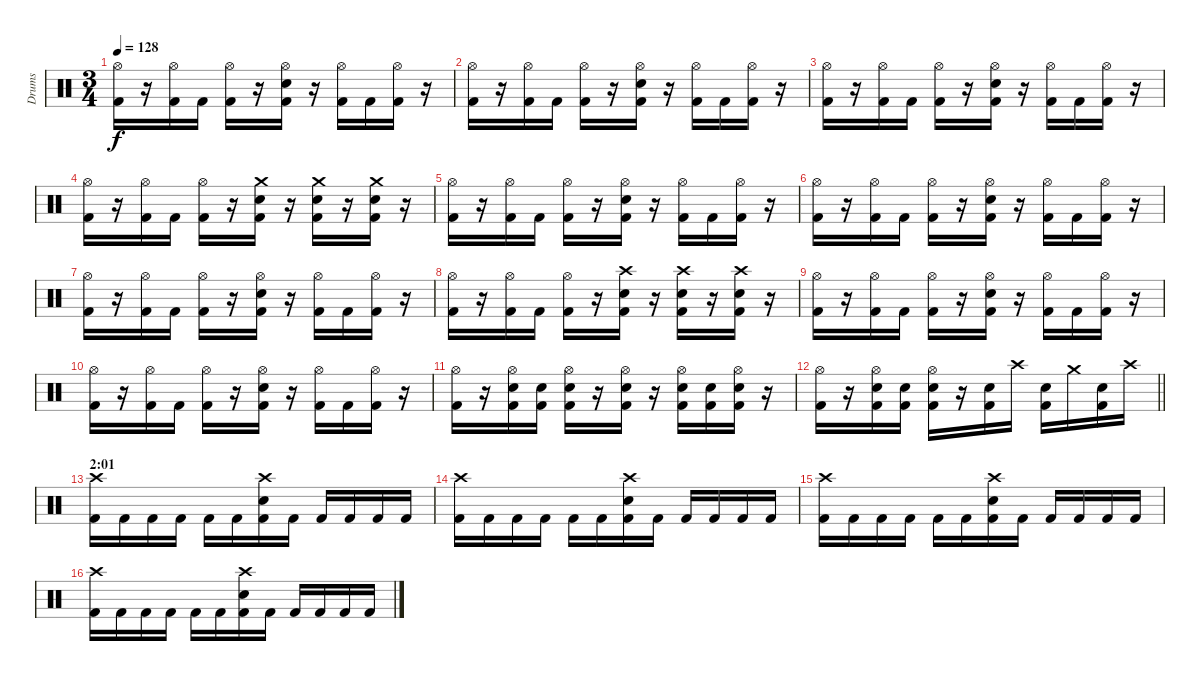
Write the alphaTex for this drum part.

\track ("Drums" "Drums") {instrument percussion}
\staff {score}
\articulation defaults
\ts (3 4)
\tempo 128
\clef neutral
\ks c
("Hi-Hat (open)" "Kick (hit) 2").16{dy f} r.16 ("Hi-Hat (open)" "Kick (hit) 2").16 "Kick (hit) 2".16 ("Hi-Hat (open)" "Kick (hit) 2").16 r.16 ("Hi-Hat (open)" "Snare (hit) 2" "Kick (hit) 2").16 r.16 ("Hi-Hat (open)" "Kick (hit) 2").16 "Kick (hit) 2".16 ("Hi-Hat (open)" "Kick (hit) 2").16 r.16 |
("Hi-Hat (open)" "Kick (hit) 2").16 r.16 ("Hi-Hat (open)" "Kick (hit) 2").16 "Kick (hit) 2".16 ("Hi-Hat (open)" "Kick (hit) 2").16 r.16 ("Hi-Hat (open)" "Snare (hit) 2" "Kick (hit) 2").16 r.16 ("Hi-Hat (open)" "Kick (hit) 2").16 "Kick (hit) 2".16 ("Hi-Hat (open)" "Kick (hit) 2").16 r.16 |
("Hi-Hat (open)" "Kick (hit) 2").16 r.16 ("Hi-Hat (open)" "Kick (hit) 2").16 "Kick (hit) 2".16 ("Hi-Hat (open)" "Kick (hit) 2").16 r.16 ("Hi-Hat (open)" "Snare (hit) 2" "Kick (hit) 2").16 r.16 ("Hi-Hat (open)" "Kick (hit) 2").16 "Kick (hit) 2".16 ("Hi-Hat (open)" "Kick (hit) 2").16 r.16 |
("Hi-Hat (open)" "Kick (hit) 2").16 r.16 ("Hi-Hat (open)" "Kick (hit) 2").16 "Kick (hit) 2".16 ("Hi-Hat (open)" "Kick (hit) 2").16 r.16 ("Crash medium (hit)" "Snare (hit) 2" "Kick (hit) 2").16 r.16 ("Crash medium (hit)" "Snare (hit) 2" "Kick (hit) 2").16 r.16 ("Crash medium (hit)" "Snare (hit) 2" "Kick (hit) 2").16 r.16 |
("Hi-Hat (open)" "Kick (hit) 2").16 r.16 ("Hi-Hat (open)" "Kick (hit) 2").16 "Kick (hit) 2".16 ("Hi-Hat (open)" "Kick (hit) 2").16 r.16 ("Hi-Hat (open)" "Snare (hit) 2" "Kick (hit) 2").16 r.16 ("Hi-Hat (open)" "Kick (hit) 2").16 "Kick (hit) 2".16 ("Hi-Hat (open)" "Kick (hit) 2").16 r.16 |
("Hi-Hat (open)" "Kick (hit) 2").16 r.16 ("Hi-Hat (open)" "Kick (hit) 2").16 "Kick (hit) 2".16 ("Hi-Hat (open)" "Kick (hit) 2").16 r.16 ("Hi-Hat (open)" "Snare (hit) 2" "Kick (hit) 2").16 r.16 ("Hi-Hat (open)" "Kick (hit) 2").16 "Kick (hit) 2".16 ("Hi-Hat (open)" "Kick (hit) 2").16 r.16 |
("Hi-Hat (open)" "Kick (hit) 2").16 r.16 ("Hi-Hat (open)" "Kick (hit) 2").16 "Kick (hit) 2".16 ("Hi-Hat (open)" "Kick (hit) 2").16 r.16 ("Hi-Hat (open)" "Snare (hit) 2" "Kick (hit) 2").16 r.16 ("Hi-Hat (open)" "Kick (hit) 2").16 "Kick (hit) 2".16 ("Hi-Hat (open)" "Kick (hit) 2").16 r.16 |
("Hi-Hat (open)" "Kick (hit) 2").16 r.16 ("Hi-Hat (open)" "Kick (hit) 2").16 "Kick (hit) 2".16 ("Hi-Hat (open)" "Kick (hit) 2").16 r.16 ("Crash high (hit)" "Snare (hit) 2" "Kick (hit) 2").16 r.16 ("Crash high (hit)" "Snare (hit) 2" "Kick (hit) 2").16 r.16 ("Crash high (hit)" "Snare (hit) 2" "Kick (hit) 2").16 r.16 |
("Hi-Hat (open)" "Kick (hit) 2").16 r.16 ("Hi-Hat (open)" "Kick (hit) 2").16 "Kick (hit) 2".16 ("Hi-Hat (open)" "Kick (hit) 2").16 r.16 ("Hi-Hat (open)" "Snare (hit) 2" "Kick (hit) 2").16 r.16 ("Hi-Hat (open)" "Kick (hit) 2").16 "Kick (hit) 2".16 ("Hi-Hat (open)" "Kick (hit) 2").16 r.16 |
("Hi-Hat (open)" "Kick (hit) 2").16 r.16 ("Hi-Hat (open)" "Kick (hit) 2").16 "Kick (hit) 2".16 ("Hi-Hat (open)" "Kick (hit) 2").16 r.16 ("Hi-Hat (open)" "Snare (hit) 2" "Kick (hit) 2").16 r.16 ("Hi-Hat (open)" "Kick (hit) 2").16 "Kick (hit) 2".16 ("Hi-Hat (open)" "Kick (hit) 2").16 r.16 |
("Hi-Hat (open)" "Kick (hit) 2").16 r.16 ("Hi-Hat (open)" "Snare (hit) 2" "Kick (hit) 2").16 ("Snare (hit) 2" "Kick (hit) 2").16 ("Hi-Hat (open)" "Snare (hit) 2" "Kick (hit) 2").16 r.16 ("Hi-Hat (open)" "Snare (hit) 2" "Kick (hit) 2").16 r.16 ("Hi-Hat (open)" "Snare (hit) 2" "Kick (hit) 2").16 ("Snare (hit) 2" "Kick (hit) 2").16 ("Hi-Hat (open)" "Snare (hit) 2" "Kick (hit) 2").16 r.16 |
\barLineRight lightlight
("Hi-Hat (open)" "Kick (hit) 2").16 r.16 ("Hi-Hat (open)" "Snare (hit) 2" "Kick (hit) 2").16 ("Snare (hit) 2" "Kick (hit) 2").16 ("Hi-Hat (open)" "Snare (hit) 2" "Kick (hit) 2").16 r.16 ("Snare (hit) 2" "Kick (hit) 2").16 "Crash high (hit)".16 ("Snare (hit) 2" "Kick (hit) 2").16 "Crash medium (hit)".16 ("Snare (hit) 2" "Kick (hit) 2").16 "Crash high (hit)".16 |
\section ("" "2:01")
("Crash high (hit)" "Kick (hit) 2").16 "Kick (hit) 2".16 "Kick (hit) 2".16 "Kick (hit) 2".16 "Kick (hit) 2".16 "Kick (hit) 2".16 ("Crash high (hit)" "Snare (hit) 2" "Kick (hit) 2").16 "Kick (hit) 2".16 "Kick (hit) 2".16 "Kick (hit) 2".16 "Kick (hit) 2".16 "Kick (hit) 2".16 |
("Crash high (hit)" "Kick (hit) 2").16 "Kick (hit) 2".16 "Kick (hit) 2".16 "Kick (hit) 2".16 "Kick (hit) 2".16 "Kick (hit) 2".16 ("Crash high (hit)" "Snare (hit) 2" "Kick (hit) 2").16 "Kick (hit) 2".16 "Kick (hit) 2".16 "Kick (hit) 2".16 "Kick (hit) 2".16 "Kick (hit) 2".16 |
("Crash high (hit)" "Kick (hit) 2").16 "Kick (hit) 2".16 "Kick (hit) 2".16 "Kick (hit) 2".16 "Kick (hit) 2".16 "Kick (hit) 2".16 ("Crash high (hit)" "Snare (hit) 2" "Kick (hit) 2").16 "Kick (hit) 2".16 "Kick (hit) 2".16 "Kick (hit) 2".16 "Kick (hit) 2".16 "Kick (hit) 2".16 |
("Crash high (hit)" "Kick (hit) 2").16 "Kick (hit) 2".16 "Kick (hit) 2".16 "Kick (hit) 2".16 "Kick (hit) 2".16 "Kick (hit) 2".16 ("Crash high (hit)" "Snare (hit) 2" "Kick (hit) 2").16 "Kick (hit) 2".16 "Kick (hit) 2".16 "Kick (hit) 2".16 "Kick (hit) 2".16 "Kick (hit) 2".16
